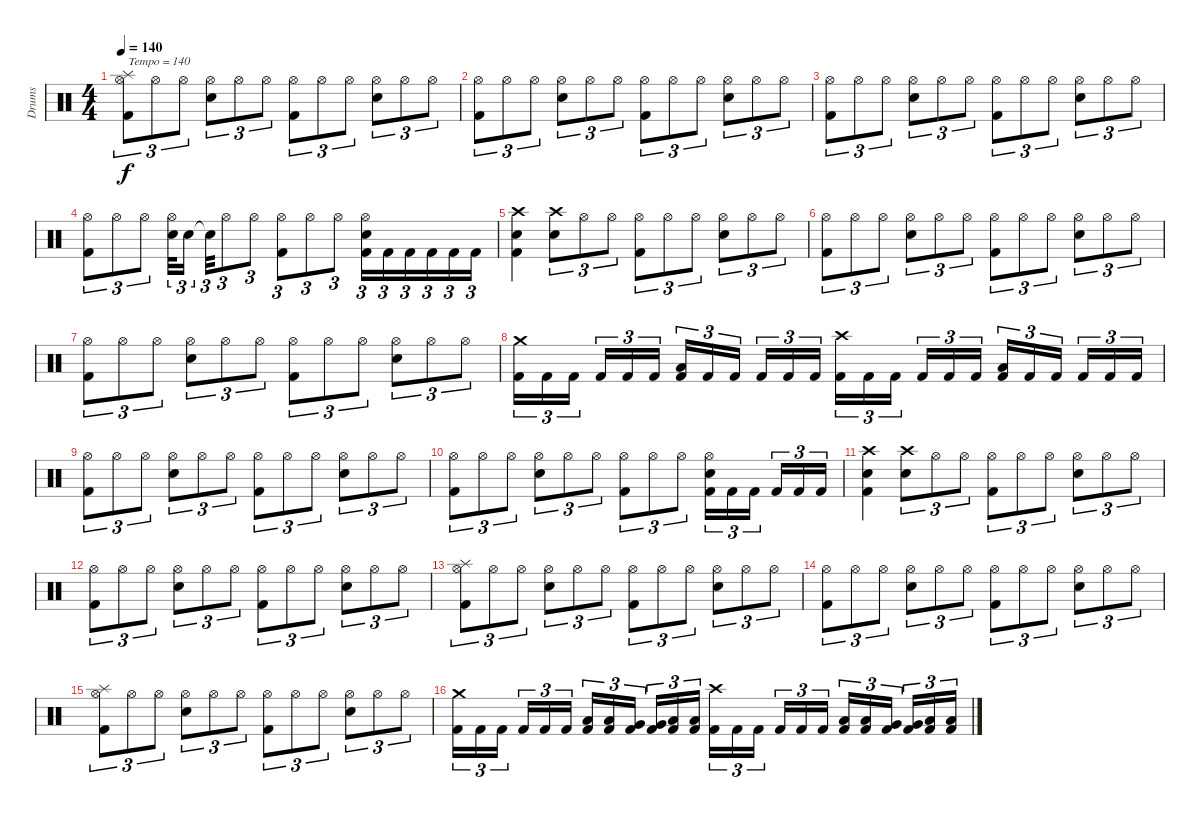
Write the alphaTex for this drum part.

\track ("Drums" "Drums") {instrument percussion}
\staff {score}
\articulation defaults
\ts (4 4)
\tempo 140
\clef neutral
\ks c
("Splash (hit)" "Hi-Hat (open)" "Kick (hit) 2").8{tu (3 2) txt "Tempo = 140" dy f volume 16} "Hi-Hat (open)".8{tu (3 2)} "Hi-Hat (open)".8{tu (3 2)} ("Hi-Hat (open)" "Electric Snare (hit)").8{tu (3 2)} "Hi-Hat (open)".8{tu (3 2)} "Hi-Hat (open)".8{tu (3 2)} ("Hi-Hat (open)" "Kick (hit) 2").8{tu (3 2)} "Hi-Hat (open)".8{tu (3 2)} "Hi-Hat (open)".8{tu (3 2)} ("Hi-Hat (open)" "Electric Snare (hit)").8{tu (3 2)} "Hi-Hat (open)".8{tu (3 2)} "Hi-Hat (open)".8{tu (3 2)} |
("Hi-Hat (open)" "Kick (hit) 2").8{tu (3 2)} "Hi-Hat (open)".8{tu (3 2)} "Hi-Hat (open)".8{tu (3 2)} ("Hi-Hat (open)" "Electric Snare (hit)").8{tu (3 2)} "Hi-Hat (open)".8{tu (3 2)} "Hi-Hat (open)".8{tu (3 2)} ("Hi-Hat (open)" "Kick (hit) 2").8{tu (3 2)} "Hi-Hat (open)".8{tu (3 2)} "Hi-Hat (open)".8{tu (3 2)} ("Hi-Hat (open)" "Electric Snare (hit)").8{tu (3 2)} "Hi-Hat (open)".8{tu (3 2)} "Hi-Hat (open)".8{tu (3 2)} |
("Hi-Hat (open)" "Kick (hit) 2").8{tu (3 2)} "Hi-Hat (open)".8{tu (3 2)} "Hi-Hat (open)".8{tu (3 2)} ("Hi-Hat (open)" "Electric Snare (hit)").8{tu (3 2)} "Hi-Hat (open)".8{tu (3 2)} "Hi-Hat (open)".8{tu (3 2)} ("Hi-Hat (open)" "Kick (hit) 2").8{tu (3 2)} "Hi-Hat (open)".8{tu (3 2)} "Hi-Hat (open)".8{tu (3 2)} ("Hi-Hat (open)" "Electric Snare (hit)").8{tu (3 2)} "Hi-Hat (open)".8{tu (3 2)} "Hi-Hat (open)".8{tu (3 2)} |
("Hi-Hat (open)" "Kick (hit) 2").8{tu (3 2)} "Hi-Hat (open)".8{tu (3 2)} "Hi-Hat (open)".8{tu (3 2)} ("Hi-Hat (open)" "Electric Snare (hit)").32{tu (3 2)} "Electric Snare (hit)".16{tu (3 2)} "Snare (hit)"{t}.32{tu (3 2)} "Hi-Hat (open)".8{tu (3 2)} "Hi-Hat (open)".8{tu (3 2)} ("Hi-Hat (open)" "Kick (hit) 2").8{tu (3 2)} "Hi-Hat (open)".8{tu (3 2)} "Hi-Hat (open)".8{tu (3 2)} ("Hi-Hat (open)" "Electric Snare (hit)" "Kick (hit) 2").16{tu (3 2)} "Kick (hit) 2".16{tu (3 2)} "Kick (hit) 2".16{tu (3 2)} "Kick (hit) 2".16{tu (3 2)} "Kick (hit) 2".16{tu (3 2)} "Kick (hit) 2".16{tu (3 2)} |
("Crash high (hit)" "Electric Snare (hit)" "Kick (hit) 2").4 ("Crash high (hit)" "Electric Snare (hit)").8{tu (3 2)} "Hi-Hat (open)".8{tu (3 2)} "Hi-Hat (open)".8{tu (3 2)} ("Hi-Hat (open)" "Kick (hit) 2").8{tu (3 2)} "Hi-Hat (open)".8{tu (3 2)} "Hi-Hat (open)".8{tu (3 2)} ("Hi-Hat (open)" "Electric Snare (hit)").8{tu (3 2)} "Hi-Hat (open)".8{tu (3 2)} "Hi-Hat (open)".8{tu (3 2)} |
("Hi-Hat (open)" "Kick (hit) 2").8{tu (3 2)} "Hi-Hat (open)".8{tu (3 2)} "Hi-Hat (open)".8{tu (3 2)} ("Hi-Hat (open)" "Electric Snare (hit)").8{tu (3 2)} "Hi-Hat (open)".8{tu (3 2)} "Hi-Hat (open)".8{tu (3 2)} ("Hi-Hat (open)" "Kick (hit) 2").8{tu (3 2)} "Hi-Hat (open)".8{tu (3 2)} "Hi-Hat (open)".8{tu (3 2)} ("Hi-Hat (open)" "Electric Snare (hit)").8{tu (3 2)} "Hi-Hat (open)".8{tu (3 2)} "Hi-Hat (open)".8{tu (3 2)} |
("Hi-Hat (open)" "Kick (hit) 2").8{tu (3 2)} "Hi-Hat (open)".8{tu (3 2)} "Hi-Hat (open)".8{tu (3 2)} ("Hi-Hat (open)" "Electric Snare (hit)").8{tu (3 2)} "Hi-Hat (open)".8{tu (3 2)} "Hi-Hat (open)".8{tu (3 2)} ("Hi-Hat (open)" "Kick (hit) 2").8{tu (3 2)} "Hi-Hat (open)".8{tu (3 2)} "Hi-Hat (open)".8{tu (3 2)} ("Hi-Hat (open)" "Electric Snare (hit)").8{tu (3 2)} "Hi-Hat (open)".8{tu (3 2)} "Hi-Hat (open)".8{tu (3 2)} |
("Crash medium (hit)" "Kick (hit) 2").16{tu (3 2)} "Kick (hit) 2".16{tu (3 2)} "Kick (hit) 2".16{tu (3 2)} "Kick (hit) 2".16{tu (3 2)} "Kick (hit) 2".16{tu (3 2)} "Kick (hit) 2".16{tu (3 2)} ("Low Tom (hit)" "Kick (hit) 2").16{tu (3 2)} "Kick (hit) 2".16{tu (3 2)} "Kick (hit) 2".16{tu (3 2)} "Kick (hit) 2".16{tu (3 2)} "Kick (hit) 2".16{tu (3 2)} "Kick (hit) 2".16{tu (3 2)} ("Crash high (hit)" "Kick (hit) 2").16{tu (3 2)} "Kick (hit) 2".16{tu (3 2)} "Kick (hit) 2".16{tu (3 2)} "Kick (hit) 2".16{tu (3 2)} "Kick (hit) 2".16{tu (3 2)} "Kick (hit) 2".16{tu (3 2)} ("Low Tom (hit)" "Kick (hit) 2").16{tu (3 2)} "Kick (hit) 2".16{tu (3 2)} "Kick (hit) 2".16{tu (3 2)} "Kick (hit) 2".16{tu (3 2)} "Kick (hit) 2".16{tu (3 2)} "Kick (hit) 2".16{tu (3 2)} |
("Hi-Hat (open)" "Kick (hit) 2").8{tu (3 2)} "Hi-Hat (open)".8{tu (3 2)} "Hi-Hat (open)".8{tu (3 2)} ("Hi-Hat (open)" "Electric Snare (hit)").8{tu (3 2)} "Hi-Hat (open)".8{tu (3 2)} "Hi-Hat (open)".8{tu (3 2)} ("Hi-Hat (open)" "Kick (hit) 2").8{tu (3 2)} "Hi-Hat (open)".8{tu (3 2)} "Hi-Hat (open)".8{tu (3 2)} ("Hi-Hat (open)" "Electric Snare (hit)").8{tu (3 2)} "Hi-Hat (open)".8{tu (3 2)} "Hi-Hat (open)".8{tu (3 2)} |
("Hi-Hat (open)" "Kick (hit) 2").8{tu (3 2)} "Hi-Hat (open)".8{tu (3 2)} "Hi-Hat (open)".8{tu (3 2)} ("Hi-Hat (open)" "Electric Snare (hit)").8{tu (3 2)} "Hi-Hat (open)".8{tu (3 2)} "Hi-Hat (open)".8{tu (3 2)} ("Hi-Hat (open)" "Kick (hit) 2").8{tu (3 2)} "Hi-Hat (open)".8{tu (3 2)} "Hi-Hat (open)".8{tu (3 2)} ("Hi-Hat (open)" "Electric Snare (hit)" "Kick (hit) 2").16{tu (3 2)} "Kick (hit) 2".16{tu (3 2)} "Kick (hit) 2".16{tu (3 2)} "Kick (hit) 2".16{tu (3 2)} "Kick (hit) 2".16{tu (3 2)} "Kick (hit) 2".16{tu (3 2)} |
("Crash high (hit)" "Electric Snare (hit)" "Kick (hit) 2").4 ("Crash high (hit)" "Electric Snare (hit)").8{tu (3 2)} "Hi-Hat (open)".8{tu (3 2)} "Hi-Hat (open)".8{tu (3 2)} ("Hi-Hat (open)" "Kick (hit) 2").8{tu (3 2)} "Hi-Hat (open)".8{tu (3 2)} "Hi-Hat (open)".8{tu (3 2)} ("Hi-Hat (open)" "Electric Snare (hit)").8{tu (3 2)} "Hi-Hat (open)".8{tu (3 2)} "Hi-Hat (open)".8{tu (3 2)} |
("Hi-Hat (open)" "Kick (hit) 2").8{tu (3 2)} "Hi-Hat (open)".8{tu (3 2)} "Hi-Hat (open)".8{tu (3 2)} ("Hi-Hat (open)" "Electric Snare (hit)").8{tu (3 2)} "Hi-Hat (open)".8{tu (3 2)} "Hi-Hat (open)".8{tu (3 2)} ("Hi-Hat (open)" "Kick (hit) 2").8{tu (3 2)} "Hi-Hat (open)".8{tu (3 2)} "Hi-Hat (open)".8{tu (3 2)} ("Hi-Hat (open)" "Electric Snare (hit)").8{tu (3 2)} "Hi-Hat (open)".8{tu (3 2)} "Hi-Hat (open)".8{tu (3 2)} |
("Splash (hit)" "Hi-Hat (open)" "Kick (hit) 2").8{tu (3 2)} "Hi-Hat (open)".8{tu (3 2)} "Hi-Hat (open)".8{tu (3 2)} ("Hi-Hat (open)" "Electric Snare (hit)").8{tu (3 2)} "Hi-Hat (open)".8{tu (3 2)} "Hi-Hat (open)".8{tu (3 2)} ("Hi-Hat (open)" "Kick (hit) 2").8{tu (3 2)} "Hi-Hat (open)".8{tu (3 2)} "Hi-Hat (open)".8{tu (3 2)} ("Hi-Hat (open)" "Electric Snare (hit)").8{tu (3 2)} "Hi-Hat (open)".8{tu (3 2)} "Hi-Hat (open)".8{tu (3 2)} |
("Hi-Hat (open)" "Kick (hit) 2").8{tu (3 2)} "Hi-Hat (open)".8{tu (3 2)} "Hi-Hat (open)".8{tu (3 2)} ("Hi-Hat (open)" "Electric Snare (hit)").8{tu (3 2)} "Hi-Hat (open)".8{tu (3 2)} "Hi-Hat (open)".8{tu (3 2)} ("Hi-Hat (open)" "Kick (hit) 2").8{tu (3 2)} "Hi-Hat (open)".8{tu (3 2)} "Hi-Hat (open)".8{tu (3 2)} ("Hi-Hat (open)" "Electric Snare (hit)").8{tu (3 2)} "Hi-Hat (open)".8{tu (3 2)} "Hi-Hat (open)".8{tu (3 2)} |
("Splash (hit)" "Hi-Hat (open)" "Kick (hit) 2").8{tu (3 2)} "Hi-Hat (open)".8{tu (3 2)} "Hi-Hat (open)".8{tu (3 2)} ("Hi-Hat (open)" "Electric Snare (hit)").8{tu (3 2)} "Hi-Hat (open)".8{tu (3 2)} "Hi-Hat (open)".8{tu (3 2)} ("Hi-Hat (open)" "Kick (hit) 2").8{tu (3 2)} "Hi-Hat (open)".8{tu (3 2)} "Hi-Hat (open)".8{tu (3 2)} ("Hi-Hat (open)" "Electric Snare (hit)").8{tu (3 2)} "Hi-Hat (open)".8{tu (3 2)} "Hi-Hat (open)".8{tu (3 2)} |
("Crash medium (hit)" "Kick (hit) 2").16{tu (3 2)} "Kick (hit) 2".16{tu (3 2)} "Kick (hit) 2".16{tu (3 2)} "Kick (hit) 2".16{tu (3 2)} "Kick (hit) 2".16{tu (3 2)} "Kick (hit) 2".16{tu (3 2)} ("Low Tom (hit)" "Kick (hit) 2").16{tu (3 2)} ("Low Tom (hit)" "Kick (hit) 2").16{tu (3 2)} ("Very Low Tom (hit)" "Kick (hit) 2").16{tu (3 2)} ("Very Low Tom (hit)" "Kick (hit) 2").16{tu (3 2)} ("Low Floor Tom (hit)" "Kick (hit) 2").16{tu (3 2)} ("Low Floor Tom (hit)" "Kick (hit) 2").16{tu (3 2)} ("Crash high (hit)" "Kick (hit) 2").16{tu (3 2)} "Kick (hit) 2".16{tu (3 2)} "Kick (hit) 2".16{tu (3 2)} "Kick (hit) 2".16{tu (3 2)} "Kick (hit) 2".16{tu (3 2)} "Kick (hit) 2".16{tu (3 2)} ("Low Tom (hit)" "Kick (hit) 2").16{tu (3 2)} ("Low Tom (hit)" "Kick (hit) 2").16{tu (3 2)} ("Very Low Tom (hit)" "Kick (hit) 2").16{tu (3 2)} ("Very Low Tom (hit)" "Kick (hit) 2").16{tu (3 2)} ("Low Floor Tom (hit)" "Kick (hit) 2").16{tu (3 2)} ("Low Floor Tom (hit)" "Kick (hit) 2").16{tu (3 2)}
